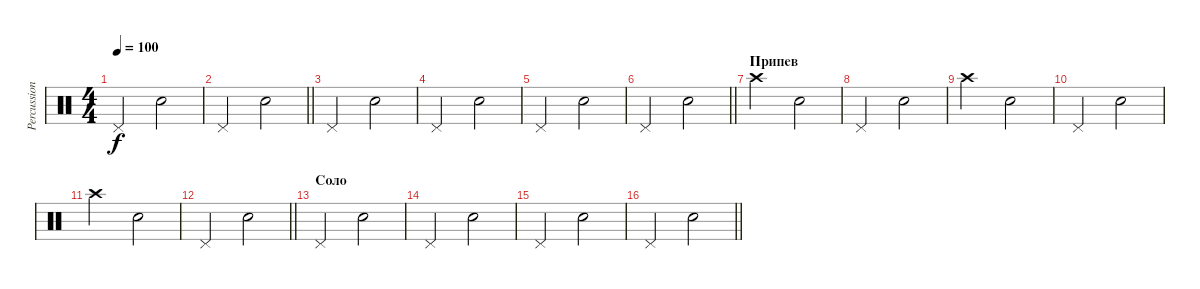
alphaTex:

\track ("Percussioni" "Percussion") {instrument percussion}
\staff {score}
\articulation defaults
\ts (4 4)
\tempo 100
\clef neutral
\ks c "Pedal Hi-Hat (hit)".2{dy f} "Snare (hit) 2".2
|
\barLineRight lightlight "Pedal Hi-Hat (hit)".2 "Snare (hit) 2".2
|
"Pedal Hi-Hat (hit)".2 "Snare (hit) 2".2 |
"Pedal Hi-Hat (hit)".2 "Snare (hit) 2".2 |
"Pedal Hi-Hat (hit)".2 "Snare (hit) 2".2 |
\barLineRight lightlight "Pedal Hi-Hat (hit)".2 "Snare (hit) 2".2
|
\section ("" "Припев")
"Crash high (hit)".2 "Snare (hit) 2".2 |
"Pedal Hi-Hat (hit)".2 "Snare (hit) 2".2 |
"Crash high (hit)".2 "Snare (hit) 2".2 |
"Pedal Hi-Hat (hit)".2 "Snare (hit) 2".2 |
"Crash high (hit)".2 "Snare (hit) 2".2 |
\barLineRight lightlight "Pedal Hi-Hat (hit)".2 "Snare (hit) 2".2
|
\section ("" "Соло")
"Pedal Hi-Hat (hit)".2 "Snare (hit) 2".2 |
"Pedal Hi-Hat (hit)".2 "Snare (hit) 2".2 |
"Pedal Hi-Hat (hit)".2 "Snare (hit) 2".2 |
\barLineRight lightlight "Pedal Hi-Hat (hit)".2 "Snare (hit) 2".2
